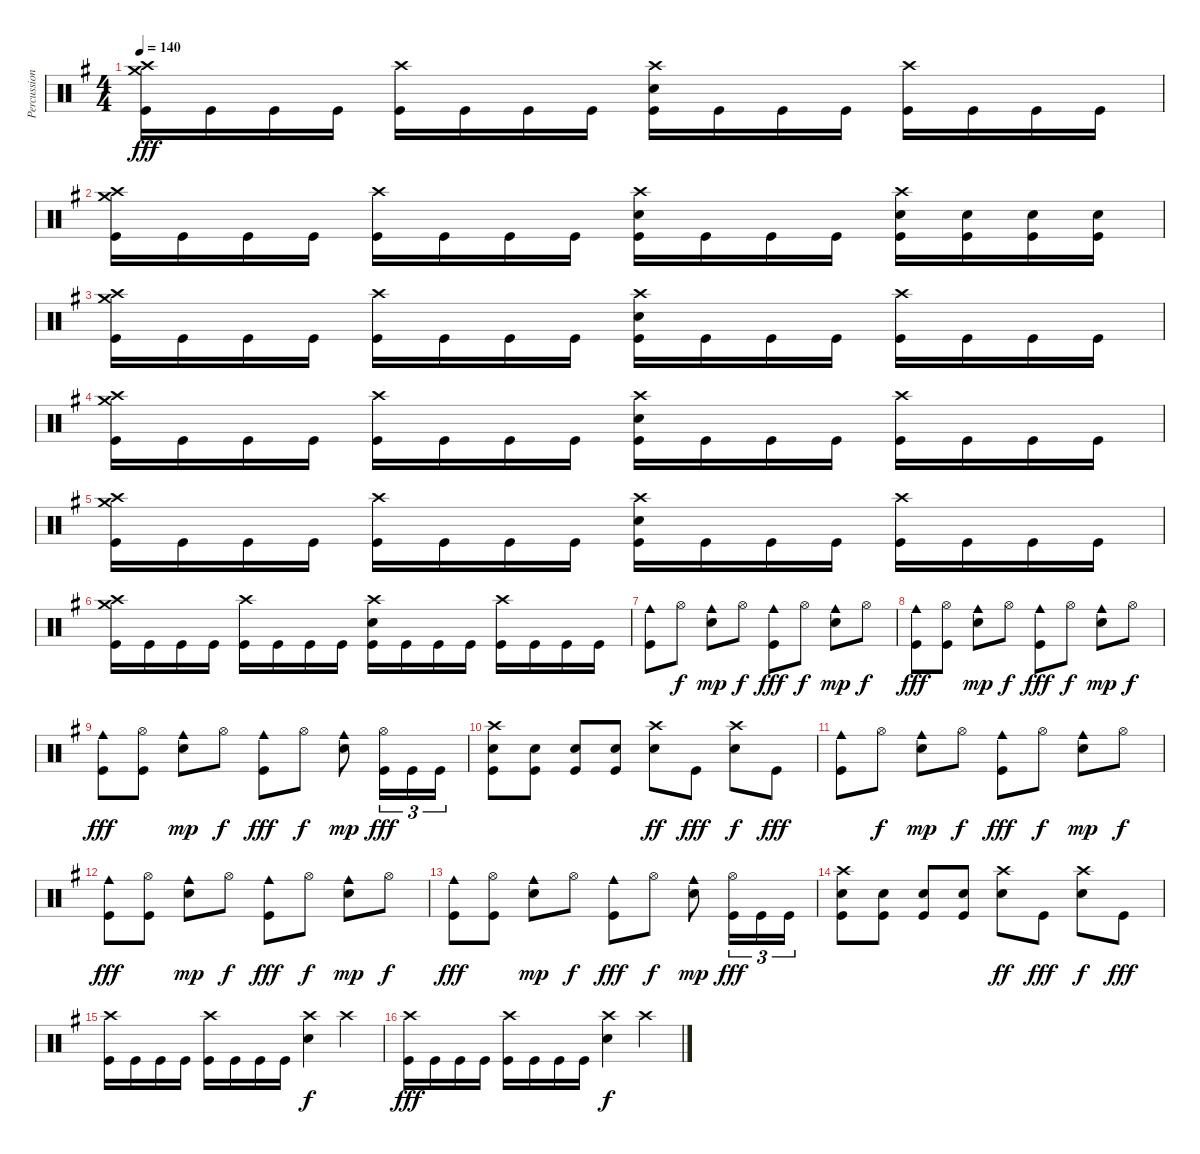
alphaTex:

\track ("Percussion" "Percussion") {instrument percussion}
\staff {score}
\articulation defaults
\ts (4 4)
\tempo 140
\clef neutral
\ks eminor
("Crash medium (hit)" "Crash high (hit)" "Kick (hit)").16{dy fff} "Kick (hit)".16 "Kick (hit)".16 "Kick (hit)".16 ("Crash high (hit)" "Kick (hit)").16 "Kick (hit)".16 "Kick (hit)".16 "Kick (hit)".16 ("Crash high (hit)" "Snare (hit) 2" "Kick (hit)").16 "Kick (hit)".16 "Kick (hit)".16 "Kick (hit)".16 ("Crash high (hit)" "Kick (hit)").16 "Kick (hit)".16 "Kick (hit)".16 "Kick (hit)".16 |
("Crash medium (hit)" "Crash high (hit)" "Kick (hit)").16 "Kick (hit)".16 "Kick (hit)".16 "Kick (hit)".16 ("Crash high (hit)" "Kick (hit)").16 "Kick (hit)".16 "Kick (hit)".16 "Kick (hit)".16 ("Crash high (hit)" "Snare (hit) 2" "Kick (hit)").16 "Kick (hit)".16 "Kick (hit)".16 "Kick (hit)".16 ("Crash high (hit)" "Snare (hit) 2" "Kick (hit)").16 ("Snare (hit) 2" "Kick (hit)").16 ("Snare (hit) 2" "Kick (hit)").16 ("Snare (hit) 2" "Kick (hit)").16 |
("Crash medium (hit)" "Crash high (hit)" "Kick (hit)").16 "Kick (hit)".16 "Kick (hit)".16 "Kick (hit)".16 ("Crash high (hit)" "Kick (hit)").16 "Kick (hit)".16 "Kick (hit)".16 "Kick (hit)".16 ("Crash high (hit)" "Snare (hit) 2" "Kick (hit)").16 "Kick (hit)".16 "Kick (hit)".16 "Kick (hit)".16 ("Crash high (hit)" "Kick (hit)").16 "Kick (hit)".16 "Kick (hit)".16 "Kick (hit)".16 |
("Crash medium (hit)" "Crash high (hit)" "Kick (hit)").16 "Kick (hit)".16 "Kick (hit)".16 "Kick (hit)".16 ("Crash high (hit)" "Kick (hit)").16 "Kick (hit)".16 "Kick (hit)".16 "Kick (hit)".16 ("Crash high (hit)" "Snare (hit) 2" "Kick (hit)").16 "Kick (hit)".16 "Kick (hit)".16 "Kick (hit)".16 ("Crash high (hit)" "Kick (hit)").16 "Kick (hit)".16 "Kick (hit)".16 "Kick (hit)".16 |
("Crash medium (hit)" "Crash high (hit)" "Kick (hit)").16 "Kick (hit)".16 "Kick (hit)".16 "Kick (hit)".16 ("Crash high (hit)" "Kick (hit)").16 "Kick (hit)".16 "Kick (hit)".16 "Kick (hit)".16 ("Crash high (hit)" "Snare (hit) 2" "Kick (hit)").16 "Kick (hit)".16 "Kick (hit)".16 "Kick (hit)".16 ("Crash high (hit)" "Kick (hit)").16 "Kick (hit)".16 "Kick (hit)".16 "Kick (hit)".16 |
("Crash medium (hit)" "Crash high (hit)" "Kick (hit)").16 "Kick (hit)".16 "Kick (hit)".16 "Kick (hit)".16 ("Crash high (hit)" "Kick (hit)").16 "Kick (hit)".16 "Kick (hit)".16 "Kick (hit)".16 ("Crash high (hit)" "Snare (hit) 2" "Kick (hit)").16 "Kick (hit)".16 "Kick (hit)".16 "Kick (hit)".16 ("Crash high (hit)" "Kick (hit)").16 "Kick (hit)".16 "Kick (hit)".16 "Kick (hit)".16 |
("Cowbell medium (hit)" "Kick (hit)").8 "Hi-Hat (open)".8{dy f} ("Cowbell medium (hit)" "Snare (hit) 2").8{dy mp} "Hi-Hat (open)".8{dy f} ("Cowbell medium (hit)" "Kick (hit)").8{dy fff} "Hi-Hat (open)".8{dy f} ("Cowbell medium (hit)" "Snare (hit) 2").8{dy mp} "Hi-Hat (open)".8{dy f} |
("Cowbell medium (hit)" "Kick (hit)").8{dy fff} ("Hi-Hat (open)" "Kick (hit)").8 ("Cowbell medium (hit)" "Snare (hit) 2").8{dy mp} "Hi-Hat (open)".8{dy f} ("Cowbell medium (hit)" "Kick (hit)").8{dy fff} "Hi-Hat (open)".8{dy f} ("Cowbell medium (hit)" "Snare (hit) 2").8{dy mp} "Hi-Hat (open)".8{dy f} |
("Cowbell medium (hit)" "Kick (hit)").8{dy fff} ("Hi-Hat (open)" "Kick (hit)").8 ("Cowbell medium (hit)" "Snare (hit) 2").8{dy mp} "Hi-Hat (open)".8{dy f} ("Cowbell medium (hit)" "Kick (hit)").8{dy fff} "Hi-Hat (open)".8{dy f} ("Cowbell medium (hit)" "Snare (hit) 2").8{dy mp} ("Hi-Hat (open)" "Kick (hit)").16{tu (3 2) dy fff} "Kick (hit)".16{tu (3 2)} "Kick (hit)".16{tu (3 2)} |
("Crash high (hit)" "Snare (hit) 2" "Kick (hit)").8 ("Snare (hit) 2" "Kick (hit)").8 ("Snare (hit) 2" "Kick (hit)").8 ("Snare (hit) 2" "Kick (hit)").8 ("Crash high (hit)" "Snare (hit) 2").8{dy ff} "Kick (hit)".8{dy fff} ("Crash high (hit)" "Snare (hit) 2").8{dy f} "Kick (hit)".8{dy fff} |
("Cowbell medium (hit)" "Kick (hit)").8 "Hi-Hat (open)".8{dy f} ("Cowbell medium (hit)" "Snare (hit) 2").8{dy mp} "Hi-Hat (open)".8{dy f} ("Cowbell medium (hit)" "Kick (hit)").8{dy fff} "Hi-Hat (open)".8{dy f} ("Cowbell medium (hit)" "Snare (hit) 2").8{dy mp} "Hi-Hat (open)".8{dy f} |
("Cowbell medium (hit)" "Kick (hit)").8{dy fff} ("Hi-Hat (open)" "Kick (hit)").8 ("Cowbell medium (hit)" "Snare (hit) 2").8{dy mp} "Hi-Hat (open)".8{dy f} ("Cowbell medium (hit)" "Kick (hit)").8{dy fff} "Hi-Hat (open)".8{dy f} ("Cowbell medium (hit)" "Snare (hit) 2").8{dy mp} "Hi-Hat (open)".8{dy f} |
("Cowbell medium (hit)" "Kick (hit)").8{dy fff} ("Hi-Hat (open)" "Kick (hit)").8 ("Cowbell medium (hit)" "Snare (hit) 2").8{dy mp} "Hi-Hat (open)".8{dy f} ("Cowbell medium (hit)" "Kick (hit)").8{dy fff} "Hi-Hat (open)".8{dy f} ("Cowbell medium (hit)" "Snare (hit) 2").8{dy mp} ("Hi-Hat (open)" "Kick (hit)").16{tu (3 2) dy fff} "Kick (hit)".16{tu (3 2)} "Kick (hit)".16{tu (3 2)} |
("Crash high (hit)" "Snare (hit) 2" "Kick (hit)").8 ("Snare (hit) 2" "Kick (hit)").8 ("Snare (hit) 2" "Kick (hit)").8 ("Snare (hit) 2" "Kick (hit)").8 ("Crash high (hit)" "Snare (hit) 2").8{dy ff} "Kick (hit)".8{dy fff} ("Crash high (hit)" "Snare (hit) 2").8{dy f} "Kick (hit)".8{dy fff} |
("Crash high (hit)" "Kick (hit)").16 "Kick (hit)".16 "Kick (hit)".16 "Kick (hit)".16 ("Crash high (hit)" "Kick (hit)").16 "Kick (hit)".16 "Kick (hit)".16 "Kick (hit)".16 ("Crash high (hit)" "Snare (hit) 2").4{dy f} "Crash high (hit)".4 |
("Crash high (hit)" "Kick (hit)").16{dy fff} "Kick (hit)".16 "Kick (hit)".16 "Kick (hit)".16 ("Crash high (hit)" "Kick (hit)").16 "Kick (hit)".16 "Kick (hit)".16 "Kick (hit)".16 ("Crash high (hit)" "Snare (hit) 2").4{dy f} "Crash high (hit)".4
